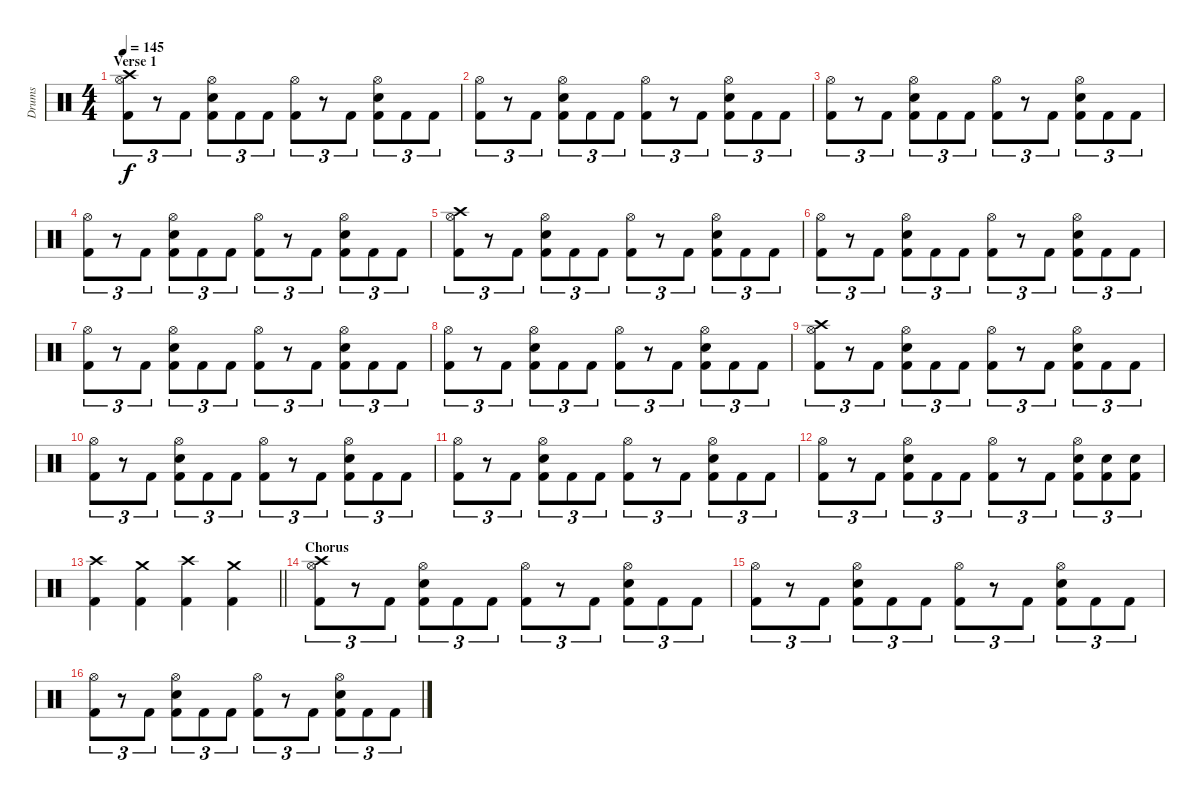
\track ("Drums" "Drums") {instrument percussion}
\staff {score}
\articulation defaults
\ts (4 4)
\section ("" "Verse 1")
\tempo 145
\clef neutral
\ks c
("Crash high (hit)" "Hi-Hat (open)" "Kick (hit) 2").8{tu (3 2) dy f} r.8{tu (3 2)} "Kick (hit) 2".8{tu (3 2)} ("Hi-Hat (open)" "Snare (hit) 2" "Kick (hit) 2").8{tu (3 2)} "Kick (hit) 2".8{tu (3 2)} "Kick (hit) 2".8{tu (3 2)} ("Hi-Hat (open)" "Kick (hit) 2").8{tu (3 2)} r.8{tu (3 2)} "Kick (hit) 2".8{tu (3 2)} ("Hi-Hat (open)" "Snare (hit) 2" "Kick (hit) 2").8{tu (3 2)} "Kick (hit) 2".8{tu (3 2)} "Kick (hit) 2".8{tu (3 2)} |
("Hi-Hat (open)" "Kick (hit) 2").8{tu (3 2)} r.8{tu (3 2)} "Kick (hit) 2".8{tu (3 2)} ("Hi-Hat (open)" "Snare (hit) 2" "Kick (hit) 2").8{tu (3 2)} "Kick (hit) 2".8{tu (3 2)} "Kick (hit) 2".8{tu (3 2)} ("Hi-Hat (open)" "Kick (hit) 2").8{tu (3 2)} r.8{tu (3 2)} "Kick (hit) 2".8{tu (3 2)} ("Hi-Hat (open)" "Snare (hit) 2" "Kick (hit) 2").8{tu (3 2)} "Kick (hit) 2".8{tu (3 2)} "Kick (hit) 2".8{tu (3 2)} |
("Hi-Hat (open)" "Kick (hit) 2").8{tu (3 2)} r.8{tu (3 2)} "Kick (hit) 2".8{tu (3 2)} ("Hi-Hat (open)" "Snare (hit) 2" "Kick (hit) 2").8{tu (3 2)} "Kick (hit) 2".8{tu (3 2)} "Kick (hit) 2".8{tu (3 2)} ("Hi-Hat (open)" "Kick (hit) 2").8{tu (3 2)} r.8{tu (3 2)} "Kick (hit) 2".8{tu (3 2)} ("Hi-Hat (open)" "Snare (hit) 2" "Kick (hit) 2").8{tu (3 2)} "Kick (hit) 2".8{tu (3 2)} "Kick (hit) 2".8{tu (3 2)} |
("Hi-Hat (open)" "Kick (hit) 2").8{tu (3 2)} r.8{tu (3 2)} "Kick (hit) 2".8{tu (3 2)} ("Hi-Hat (open)" "Snare (hit) 2" "Kick (hit) 2").8{tu (3 2)} "Kick (hit) 2".8{tu (3 2)} "Kick (hit) 2".8{tu (3 2)} ("Hi-Hat (open)" "Kick (hit) 2").8{tu (3 2)} r.8{tu (3 2)} "Kick (hit) 2".8{tu (3 2)} ("Hi-Hat (open)" "Snare (hit) 2" "Kick (hit) 2").8{tu (3 2)} "Kick (hit) 2".8{tu (3 2)} "Kick (hit) 2".8{tu (3 2)} |
("Crash high (hit)" "Hi-Hat (open)" "Kick (hit) 2").8{tu (3 2)} r.8{tu (3 2)} "Kick (hit) 2".8{tu (3 2)} ("Hi-Hat (open)" "Snare (hit) 2" "Kick (hit) 2").8{tu (3 2)} "Kick (hit) 2".8{tu (3 2)} "Kick (hit) 2".8{tu (3 2)} ("Hi-Hat (open)" "Kick (hit) 2").8{tu (3 2)} r.8{tu (3 2)} "Kick (hit) 2".8{tu (3 2)} ("Hi-Hat (open)" "Snare (hit) 2" "Kick (hit) 2").8{tu (3 2)} "Kick (hit) 2".8{tu (3 2)} "Kick (hit) 2".8{tu (3 2)} |
("Hi-Hat (open)" "Kick (hit) 2").8{tu (3 2)} r.8{tu (3 2)} "Kick (hit) 2".8{tu (3 2)} ("Hi-Hat (open)" "Snare (hit) 2" "Kick (hit) 2").8{tu (3 2)} "Kick (hit) 2".8{tu (3 2)} "Kick (hit) 2".8{tu (3 2)} ("Hi-Hat (open)" "Kick (hit) 2").8{tu (3 2)} r.8{tu (3 2)} "Kick (hit) 2".8{tu (3 2)} ("Hi-Hat (open)" "Snare (hit) 2" "Kick (hit) 2").8{tu (3 2)} "Kick (hit) 2".8{tu (3 2)} "Kick (hit) 2".8{tu (3 2)} |
("Hi-Hat (open)" "Kick (hit) 2").8{tu (3 2)} r.8{tu (3 2)} "Kick (hit) 2".8{tu (3 2)} ("Hi-Hat (open)" "Snare (hit) 2" "Kick (hit) 2").8{tu (3 2)} "Kick (hit) 2".8{tu (3 2)} "Kick (hit) 2".8{tu (3 2)} ("Hi-Hat (open)" "Kick (hit) 2").8{tu (3 2)} r.8{tu (3 2)} "Kick (hit) 2".8{tu (3 2)} ("Hi-Hat (open)" "Snare (hit) 2" "Kick (hit) 2").8{tu (3 2)} "Kick (hit) 2".8{tu (3 2)} "Kick (hit) 2".8{tu (3 2)} |
("Hi-Hat (open)" "Kick (hit) 2").8{tu (3 2)} r.8{tu (3 2)} "Kick (hit) 2".8{tu (3 2)} ("Hi-Hat (open)" "Snare (hit) 2" "Kick (hit) 2").8{tu (3 2)} "Kick (hit) 2".8{tu (3 2)} "Kick (hit) 2".8{tu (3 2)} ("Hi-Hat (open)" "Kick (hit) 2").8{tu (3 2)} r.8{tu (3 2)} "Kick (hit) 2".8{tu (3 2)} ("Hi-Hat (open)" "Snare (hit) 2" "Kick (hit) 2").8{tu (3 2)} "Kick (hit) 2".8{tu (3 2)} "Kick (hit) 2".8{tu (3 2)} |
("Crash high (hit)" "Hi-Hat (open)" "Kick (hit) 2").8{tu (3 2)} r.8{tu (3 2)} "Kick (hit) 2".8{tu (3 2)} ("Hi-Hat (open)" "Snare (hit) 2" "Kick (hit) 2").8{tu (3 2)} "Kick (hit) 2".8{tu (3 2)} "Kick (hit) 2".8{tu (3 2)} ("Hi-Hat (open)" "Kick (hit) 2").8{tu (3 2)} r.8{tu (3 2)} "Kick (hit) 2".8{tu (3 2)} ("Hi-Hat (open)" "Snare (hit) 2" "Kick (hit) 2").8{tu (3 2)} "Kick (hit) 2".8{tu (3 2)} "Kick (hit) 2".8{tu (3 2)} |
("Hi-Hat (open)" "Kick (hit) 2").8{tu (3 2)} r.8{tu (3 2)} "Kick (hit) 2".8{tu (3 2)} ("Hi-Hat (open)" "Snare (hit) 2" "Kick (hit) 2").8{tu (3 2)} "Kick (hit) 2".8{tu (3 2)} "Kick (hit) 2".8{tu (3 2)} ("Hi-Hat (open)" "Kick (hit) 2").8{tu (3 2)} r.8{tu (3 2)} "Kick (hit) 2".8{tu (3 2)} ("Hi-Hat (open)" "Snare (hit) 2" "Kick (hit) 2").8{tu (3 2)} "Kick (hit) 2".8{tu (3 2)} "Kick (hit) 2".8{tu (3 2)} |
("Hi-Hat (open)" "Kick (hit) 2").8{tu (3 2)} r.8{tu (3 2)} "Kick (hit) 2".8{tu (3 2)} ("Hi-Hat (open)" "Snare (hit) 2" "Kick (hit) 2").8{tu (3 2)} "Kick (hit) 2".8{tu (3 2)} "Kick (hit) 2".8{tu (3 2)} ("Hi-Hat (open)" "Kick (hit) 2").8{tu (3 2)} r.8{tu (3 2)} "Kick (hit) 2".8{tu (3 2)} ("Hi-Hat (open)" "Snare (hit) 2" "Kick (hit) 2").8{tu (3 2)} "Kick (hit) 2".8{tu (3 2)} "Kick (hit) 2".8{tu (3 2)} |
("Hi-Hat (open)" "Kick (hit) 2").8{tu (3 2)} r.8{tu (3 2)} "Kick (hit) 2".8{tu (3 2)} ("Hi-Hat (open)" "Snare (hit) 2" "Kick (hit) 2").8{tu (3 2)} "Kick (hit) 2".8{tu (3 2)} "Kick (hit) 2".8{tu (3 2)} ("Hi-Hat (open)" "Kick (hit) 2").8{tu (3 2)} r.8{tu (3 2)} "Kick (hit) 2".8{tu (3 2)} ("Hi-Hat (open)" "Snare (hit) 2" "Kick (hit) 2").8{tu (3 2)} ("Snare (hit) 2" "Kick (hit) 2").8{tu (3 2)} ("Snare (hit) 2" "Kick (hit) 2").8{tu (3 2)} |
\barLineRight lightlight
("Crash high (hit)" "Kick (hit) 2").4 ("Crash medium (hit)" "Kick (hit) 2").4 ("Crash high (hit)" "Kick (hit) 2").4 ("Crash medium (hit)" "Kick (hit) 2").4 |
\section ("" "Chorus")
("Crash high (hit)" "Hi-Hat (open)" "Kick (hit) 2").8{tu (3 2)} r.8{tu (3 2)} "Kick (hit) 2".8{tu (3 2)} ("Hi-Hat (open)" "Snare (hit) 2" "Kick (hit) 2").8{tu (3 2)} "Kick (hit) 2".8{tu (3 2)} "Kick (hit) 2".8{tu (3 2)} ("Hi-Hat (open)" "Kick (hit) 2").8{tu (3 2)} r.8{tu (3 2)} "Kick (hit) 2".8{tu (3 2)} ("Hi-Hat (open)" "Snare (hit) 2" "Kick (hit) 2").8{tu (3 2)} "Kick (hit) 2".8{tu (3 2)} "Kick (hit) 2".8{tu (3 2)} |
("Hi-Hat (open)" "Kick (hit) 2").8{tu (3 2)} r.8{tu (3 2)} "Kick (hit) 2".8{tu (3 2)} ("Hi-Hat (open)" "Snare (hit) 2" "Kick (hit) 2").8{tu (3 2)} "Kick (hit) 2".8{tu (3 2)} "Kick (hit) 2".8{tu (3 2)} ("Hi-Hat (open)" "Kick (hit) 2").8{tu (3 2)} r.8{tu (3 2)} "Kick (hit) 2".8{tu (3 2)} ("Hi-Hat (open)" "Snare (hit) 2" "Kick (hit) 2").8{tu (3 2)} "Kick (hit) 2".8{tu (3 2)} "Kick (hit) 2".8{tu (3 2)} |
("Hi-Hat (open)" "Kick (hit) 2").8{tu (3 2)} r.8{tu (3 2)} "Kick (hit) 2".8{tu (3 2)} ("Hi-Hat (open)" "Snare (hit) 2" "Kick (hit) 2").8{tu (3 2)} "Kick (hit) 2".8{tu (3 2)} "Kick (hit) 2".8{tu (3 2)} ("Hi-Hat (open)" "Kick (hit) 2").8{tu (3 2)} r.8{tu (3 2)} "Kick (hit) 2".8{tu (3 2)} ("Hi-Hat (open)" "Snare (hit) 2" "Kick (hit) 2").8{tu (3 2)} "Kick (hit) 2".8{tu (3 2)} "Kick (hit) 2".8{tu (3 2)}
